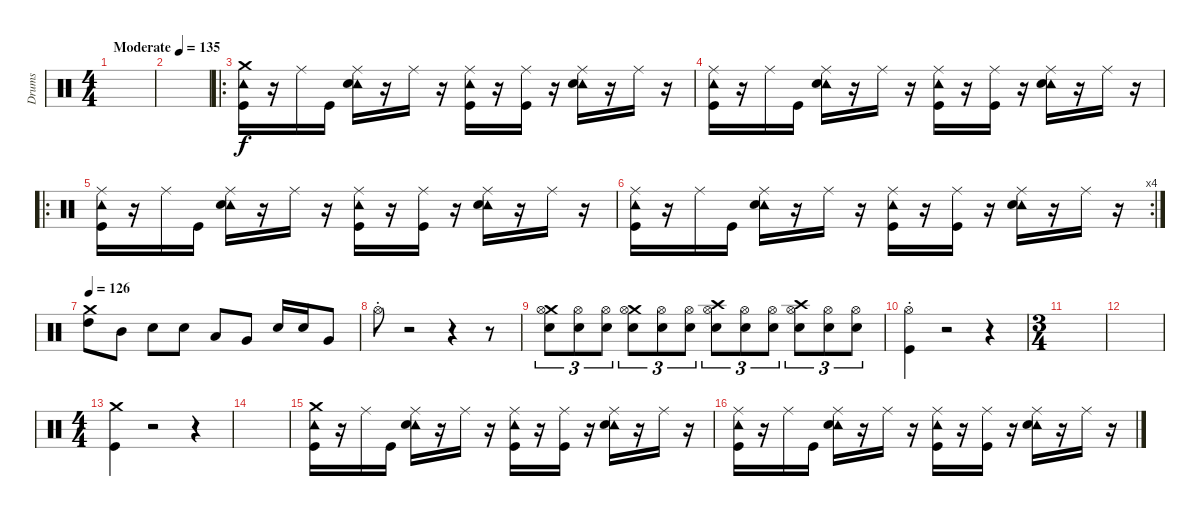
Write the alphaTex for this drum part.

\track ("Drums" "Drums") {instrument percussion}
\staff {score}
\articulation defaults
\ts (4 4)
\tempo (135 "Moderate")
\clef neutral
\ks c
|
|
\ro
("Tambourine (hit)" "Crash medium (hit)" "Kick (hit)").16 r.16 "Ride (middle)".16 "Kick (hit)".16 ("Tambourine (hit)" "Ride (middle)" "Snare (hit) 2").16 r.16 "Ride (middle)".16 r.16 ("Tambourine (hit)" "Ride (middle)" "Kick (hit)").16 r.16 ("Ride (middle)" "Kick (hit)").16 r.16 ("Tambourine (hit)" "Ride (middle)" "Snare (hit) 2").16 r.16 "Ride (middle)".16 r.16 |
("Tambourine (hit)" "Ride (middle)" "Kick (hit)").16 r.16 "Ride (middle)".16 "Kick (hit)".16 ("Tambourine (hit)" "Ride (middle)" "Snare (hit) 2").16 r.16 "Ride (middle)".16 r.16 ("Tambourine (hit)" "Ride (middle)" "Kick (hit)").16 r.16 ("Ride (middle)" "Kick (hit)").16 r.16 ("Tambourine (hit)" "Ride (middle)" "Snare (hit) 2").16 r.16 "Ride (middle)".16 r.16 |
\ro
("Tambourine (hit)" "Ride (middle)" "Kick (hit)").16 r.16 "Ride (middle)".16 "Kick (hit)".16 ("Tambourine (hit)" "Ride (middle)" "Snare (hit) 2").16 r.16 "Ride (middle)".16 r.16 ("Tambourine (hit)" "Ride (middle)" "Kick (hit)").16 r.16 ("Ride (middle)" "Kick (hit)").16 r.16 ("Tambourine (hit)" "Ride (middle)" "Snare (hit) 2").16 r.16 "Ride (middle)".16 r.16 |
\rc 4
("Tambourine (hit)" "Ride (middle)" "Kick (hit)").16 r.16 "Ride (middle)".16 "Kick (hit)".16 ("Tambourine (hit)" "Ride (middle)" "Snare (hit) 2").16 r.16 "Ride (middle)".16 r.16 ("Tambourine (hit)" "Ride (middle)" "Kick (hit)").16 r.16 ("Ride (middle)" "Kick (hit)").16 r.16 ("Tambourine (hit)" "Ride (middle)" "Snare (hit) 2").16 r.16 "Ride (middle)".16 r.16 |
\tempo 126
("Crash medium (hit)" "High Tom (hit)").8 "Mid Tom (hit)".8 "Snare (hit) 2".8 "Snare (hit) 2".8 "Low Tom (hit)".8 "Very Low Tom (hit)".8 "Snare (hit) 2".16 "Snare (hit) 2".16 "Very Low Tom (hit)".8 |
"Hi-Hat (open)"{st}.8 r.2 r.4 r.8 |
("Crash medium (hit)" "Hi-Hat (open)" "Snare (hit) 2").8{tu (3 2)} ("Hi-Hat (open)" "Snare (hit) 2").8{tu (3 2)} ("Hi-Hat (open)" "Snare (hit) 2").8{tu (3 2)} ("Crash medium (hit)" "Hi-Hat (open)" "Snare (hit) 2").8{tu (3 2)} ("Hi-Hat (open)" "Snare (hit) 2").8{tu (3 2)} ("Hi-Hat (open)" "Snare (hit) 2").8{tu (3 2)} ("Crash high (hit)" "Hi-Hat (open)" "Snare (hit) 2").8{tu (3 2)} ("Hi-Hat (open)" "Snare (hit) 2").8{tu (3 2)} ("Hi-Hat (open)" "Snare (hit) 2").8{tu (3 2)} ("Crash high (hit)" "Hi-Hat (open)" "Snare (hit) 2").8{tu (3 2)} ("Hi-Hat (open)" "Snare (hit) 2").8{tu (3 2)} ("Hi-Hat (open)" "Snare (hit) 2").8{tu (3 2)} |
("Hi-Hat (open)"{st} "Kick (hit)").4 r.2 r.4 |
\ts (3 4)
|
|
\ts (4 4)
("Crash medium (hit)" "Kick (hit)").4 r.2 r.4 |
|
("Tambourine (hit)" "Crash medium (hit)" "Kick (hit)").16 r.16 "Ride (middle)".16 "Kick (hit)".16 ("Tambourine (hit)" "Ride (middle)" "Snare (hit) 2").16 r.16 "Ride (middle)".16 r.16 ("Tambourine (hit)" "Ride (middle)" "Kick (hit)").16 r.16 ("Ride (middle)" "Kick (hit)").16 r.16 ("Tambourine (hit)" "Ride (middle)" "Snare (hit) 2").16 r.16 "Ride (middle)".16 r.16 |
("Tambourine (hit)" "Ride (middle)" "Kick (hit)").16 r.16 "Ride (middle)".16 "Kick (hit)".16 ("Tambourine (hit)" "Ride (middle)" "Snare (hit) 2").16 r.16 "Ride (middle)".16 r.16 ("Tambourine (hit)" "Ride (middle)" "Kick (hit)").16 r.16 ("Ride (middle)" "Kick (hit)").16 r.16 ("Tambourine (hit)" "Ride (middle)" "Snare (hit) 2").16 r.16 "Ride (middle)".16 r.16
